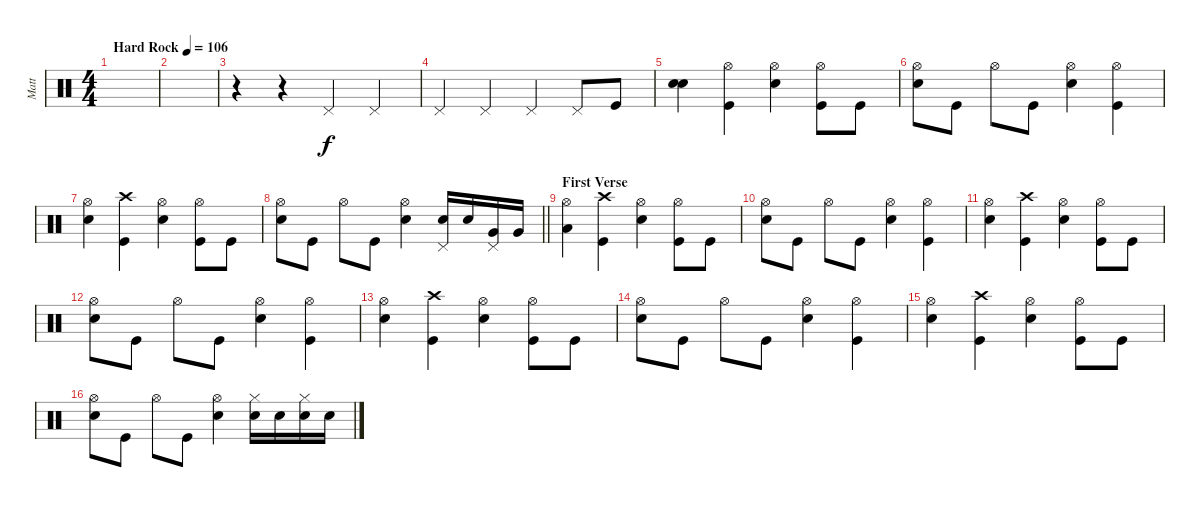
\track ("Matt" "Matt") {instrument percussion}
\staff {score}
\articulation defaults
\ts (4 4)
\tempo (106 "Hard Rock")
\clef neutral
\ks c
|
|
r.4 r.4 "Pedal Hi-Hat (hit)".4 "Pedal Hi-Hat (hit)".4 |
"Pedal Hi-Hat (hit)".4 "Pedal Hi-Hat (hit)".4 "Pedal Hi-Hat (hit)".4 "Pedal Hi-Hat (hit)".8 "Kick (hit)".8 |
("Electric Snare (hit)" "Electric Snare (hit)").4 ("Hi-Hat (open)" "Kick (hit)").4 ("Electric Snare (hit)" "Hi-Hat (open)").4 ("Hi-Hat (open)" "Kick (hit)").8 "Kick (hit)".8 |
("Electric Snare (hit)" "Hi-Hat (open)").8 "Kick (hit)".8 "Hi-Hat (open)".8 "Kick (hit)".8 ("Electric Snare (hit)" "Hi-Hat (open)").4 ("Hi-Hat (open)" "Kick (hit)").4 |
("Electric Snare (hit)" "Hi-Hat (open)").4 ("Crash high (hit)" "Kick (hit)").4 ("Electric Snare (hit)" "Hi-Hat (open)").4 ("Hi-Hat (open)" "Kick (hit)").8 "Kick (hit)".8 |
\barLineRight lightlight
("Electric Snare (hit)" "Hi-Hat (open)").8 "Kick (hit)".8 "Hi-Hat (open)".8 "Kick (hit)".8 ("Electric Snare (hit)" "Hi-Hat (open)").4 ("Pedal Hi-Hat (hit)" "Electric Snare (hit)").16 "Electric Snare (hit)".16 ("Pedal Hi-Hat (hit)" "Very Low Tom (hit)").16 "Very Low Tom (hit)".16 |
\section ("" "First Verse")
("Low Floor Tom (hit)" "Hi-Hat (open)").4 ("Crash high (hit)" "Kick (hit)").4 ("Electric Snare (hit)" "Hi-Hat (open)").4 ("Hi-Hat (open)" "Kick (hit)").8 "Kick (hit)".8 |
("Electric Snare (hit)" "Hi-Hat (open)").8 "Kick (hit)".8 "Hi-Hat (open)".8 "Kick (hit)".8 ("Electric Snare (hit)" "Hi-Hat (open)").4 ("Hi-Hat (open)" "Kick (hit)").4 |
("Electric Snare (hit)" "Hi-Hat (open)").4 ("Crash high (hit)" "Kick (hit)").4 ("Electric Snare (hit)" "Hi-Hat (open)").4 ("Hi-Hat (open)" "Kick (hit)").8 "Kick (hit)".8 |
("Electric Snare (hit)" "Hi-Hat (open)").8 "Kick (hit)".8 "Hi-Hat (open)".8 "Kick (hit)".8 ("Electric Snare (hit)" "Hi-Hat (open)").4 ("Hi-Hat (open)" "Kick (hit)").4 |
("Electric Snare (hit)" "Hi-Hat (open)").4 ("Crash high (hit)" "Kick (hit)").4 ("Electric Snare (hit)" "Hi-Hat (open)").4 ("Hi-Hat (open)" "Kick (hit)").8 "Kick (hit)".8 |
("Electric Snare (hit)" "Hi-Hat (open)").8 "Kick (hit)".8 "Hi-Hat (open)".8 "Kick (hit)".8 ("Electric Snare (hit)" "Hi-Hat (open)").4 ("Hi-Hat (open)" "Kick (hit)").4 |
("Electric Snare (hit)" "Hi-Hat (open)").4 ("Crash high (hit)" "Kick (hit)").4 ("Electric Snare (hit)" "Hi-Hat (open)").4 ("Hi-Hat (open)" "Kick (hit)").8 "Kick (hit)".8 |
("Electric Snare (hit)" "Hi-Hat (open)").8 "Kick (hit)".8 "Hi-Hat (open)".8 "Kick (hit)".8 ("Electric Snare (hit)" "Hi-Hat (open)").4 ("Electric Snare (hit)" "Hi-Hat (closed)").16 "Electric Snare (hit)".16 ("Electric Snare (hit)" "Hi-Hat (closed)").16 "Electric Snare (hit)".16
